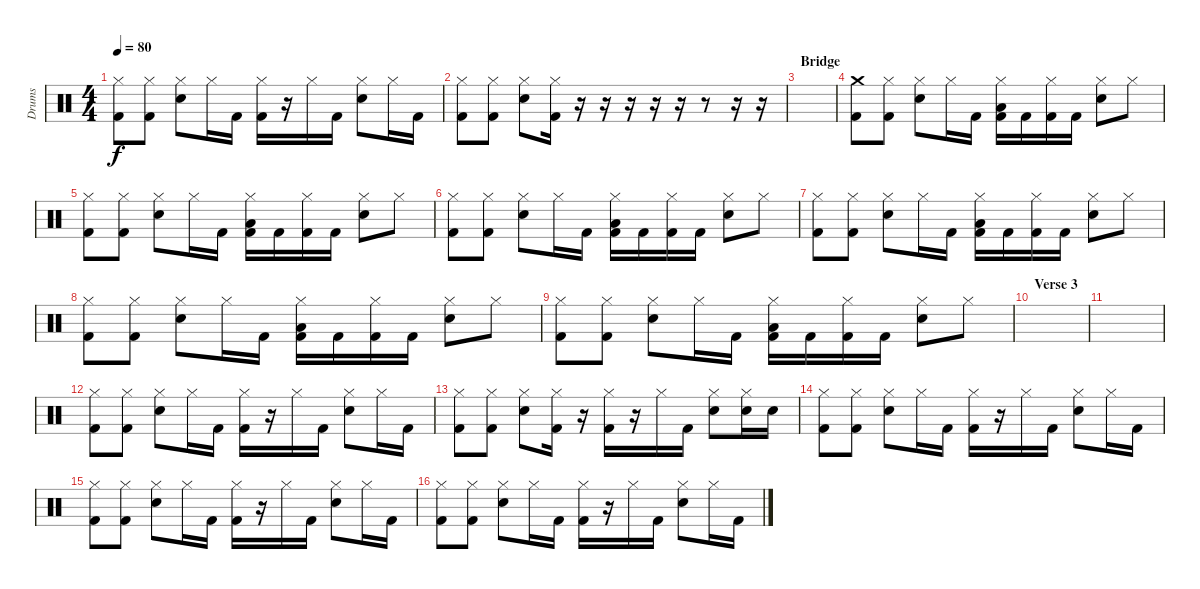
\track ("Drums" "Drums") {instrument percussion}
\staff {score}
\articulation defaults
\ts (4 4)
\tempo 80
\clef neutral
\ks c
("Hi-Hat (closed)" "Kick (hit) 2").8{dy f} ("Hi-Hat (closed)" "Kick (hit) 2").8 ("Hi-Hat (closed)" "Electric Snare (hit)").8 "Hi-Hat (closed)".16 "Kick (hit) 2".16 ("Hi-Hat (closed)" "Kick (hit) 2").16 r.16 "Hi-Hat (closed)".16 "Kick (hit) 2".16 ("Hi-Hat (closed)" "Electric Snare (hit)").8 "Hi-Hat (closed)".16 "Kick (hit) 2".16 |
("Hi-Hat (closed)" "Kick (hit) 2").8 ("Hi-Hat (closed)" "Kick (hit) 2").8 ("Hi-Hat (closed)" "Electric Snare (hit)").8 ("Hi-Hat (closed)" "Kick (hit) 2").16 r.16 r.16 r.16 r.16 r.16 r.8 r.16 r.16 |
\section ("" "Bridge")
|
("Crash medium (hit)" "Kick (hit) 2").8 ("Hi-Hat (closed)" "Kick (hit) 2").8 ("Hi-Hat (closed)" "Electric Snare (hit)").8 "Hi-Hat (closed)".16 "Kick (hit) 2".16 ("Hi-Hat (closed)" "Low Floor Tom (hit)" "Kick (hit) 2").16 "Kick (hit) 2".16 ("Hi-Hat (closed)" "Kick (hit) 2").16 "Kick (hit) 2".16 ("Hi-Hat (closed)" "Electric Snare (hit)").8 "Hi-Hat (closed)".8 |
("Hi-Hat (closed)" "Kick (hit) 2").8 ("Hi-Hat (closed)" "Kick (hit) 2").8 ("Hi-Hat (closed)" "Electric Snare (hit)").8 "Hi-Hat (closed)".16 "Kick (hit) 2".16 ("Hi-Hat (closed)" "Low Floor Tom (hit)" "Kick (hit) 2").16 "Kick (hit) 2".16 ("Hi-Hat (closed)" "Kick (hit) 2").16 "Kick (hit) 2".16 ("Hi-Hat (closed)" "Electric Snare (hit)").8 "Hi-Hat (closed)".8 |
("Hi-Hat (closed)" "Kick (hit) 2").8 ("Hi-Hat (closed)" "Kick (hit) 2").8 ("Hi-Hat (closed)" "Electric Snare (hit)").8 "Hi-Hat (closed)".16 "Kick (hit) 2".16 ("Hi-Hat (closed)" "Low Floor Tom (hit)" "Kick (hit) 2").16 "Kick (hit) 2".16 ("Hi-Hat (closed)" "Kick (hit) 2").16 "Kick (hit) 2".16 ("Hi-Hat (closed)" "Electric Snare (hit)").8 "Hi-Hat (closed)".8 |
("Hi-Hat (closed)" "Kick (hit) 2").8 ("Hi-Hat (closed)" "Kick (hit) 2").8 ("Hi-Hat (closed)" "Electric Snare (hit)").8 "Hi-Hat (closed)".16 "Kick (hit) 2".16 ("Hi-Hat (closed)" "Low Floor Tom (hit)" "Kick (hit) 2").16 "Kick (hit) 2".16 ("Hi-Hat (closed)" "Kick (hit) 2").16 "Kick (hit) 2".16 ("Hi-Hat (closed)" "Electric Snare (hit)").8 "Hi-Hat (closed)".8 |
("Hi-Hat (closed)" "Kick (hit) 2").8 ("Hi-Hat (closed)" "Kick (hit) 2").8 ("Hi-Hat (closed)" "Electric Snare (hit)").8 "Hi-Hat (closed)".16 "Kick (hit) 2".16 ("Hi-Hat (closed)" "Low Floor Tom (hit)" "Kick (hit) 2").16 "Kick (hit) 2".16 ("Hi-Hat (closed)" "Kick (hit) 2").16 "Kick (hit) 2".16 ("Hi-Hat (closed)" "Electric Snare (hit)").8 "Hi-Hat (closed)".8 |
("Hi-Hat (closed)" "Kick (hit) 2").8 ("Hi-Hat (closed)" "Kick (hit) 2").8 ("Hi-Hat (closed)" "Electric Snare (hit)").8 "Hi-Hat (closed)".16 "Kick (hit) 2".16 ("Hi-Hat (closed)" "Low Floor Tom (hit)" "Kick (hit) 2").16 "Kick (hit) 2".16 ("Hi-Hat (closed)" "Kick (hit) 2").16 "Kick (hit) 2".16 ("Hi-Hat (closed)" "Electric Snare (hit)").8 "Hi-Hat (closed)".8 |
\section ("" "Verse 3")
|
|
("Hi-Hat (closed)" "Kick (hit) 2").8 ("Hi-Hat (closed)" "Kick (hit) 2").8 ("Hi-Hat (closed)" "Electric Snare (hit)").8 "Hi-Hat (closed)".16 "Kick (hit) 2".16 ("Hi-Hat (closed)" "Kick (hit) 2").16 r.16 "Hi-Hat (closed)".16 "Kick (hit) 2".16 ("Hi-Hat (closed)" "Electric Snare (hit)").8 "Hi-Hat (closed)".16 "Kick (hit) 2".16 |
("Hi-Hat (closed)" "Kick (hit) 2").8 ("Hi-Hat (closed)" "Kick (hit) 2").8 ("Hi-Hat (closed)" "Electric Snare (hit)").8 ("Hi-Hat (closed)" "Kick (hit) 2").16 r.16 ("Hi-Hat (closed)" "Kick (hit) 2").16 r.16 "Hi-Hat (closed)".16 "Kick (hit) 2".16 ("Hi-Hat (closed)" "Electric Snare (hit)").8 ("Hi-Hat (closed)" "Electric Snare (hit)").16 "Electric Snare (hit)".16 |
("Hi-Hat (closed)" "Kick (hit) 2").8 ("Hi-Hat (closed)" "Kick (hit) 2").8 ("Hi-Hat (closed)" "Electric Snare (hit)").8 "Hi-Hat (closed)".16 "Kick (hit) 2".16 ("Hi-Hat (closed)" "Kick (hit) 2").16 r.16 "Hi-Hat (closed)".16 "Kick (hit) 2".16 ("Hi-Hat (closed)" "Electric Snare (hit)").8 "Hi-Hat (closed)".16 "Kick (hit) 2".16 |
("Hi-Hat (closed)" "Kick (hit) 2").8 ("Hi-Hat (closed)" "Kick (hit) 2").8 ("Hi-Hat (closed)" "Electric Snare (hit)").8 "Hi-Hat (closed)".16 "Kick (hit) 2".16 ("Hi-Hat (closed)" "Kick (hit) 2").16 r.16 "Hi-Hat (closed)".16 "Kick (hit) 2".16 ("Hi-Hat (closed)" "Electric Snare (hit)").8 "Hi-Hat (closed)".16 "Kick (hit) 2".16 |
("Hi-Hat (closed)" "Kick (hit) 2").8 ("Hi-Hat (closed)" "Kick (hit) 2").8 ("Hi-Hat (closed)" "Electric Snare (hit)").8 "Hi-Hat (closed)".16 "Kick (hit) 2".16 ("Hi-Hat (closed)" "Kick (hit) 2").16 r.16 "Hi-Hat (closed)".16 "Kick (hit) 2".16 ("Hi-Hat (closed)" "Electric Snare (hit)").8 "Hi-Hat (closed)".16 "Kick (hit) 2".16
